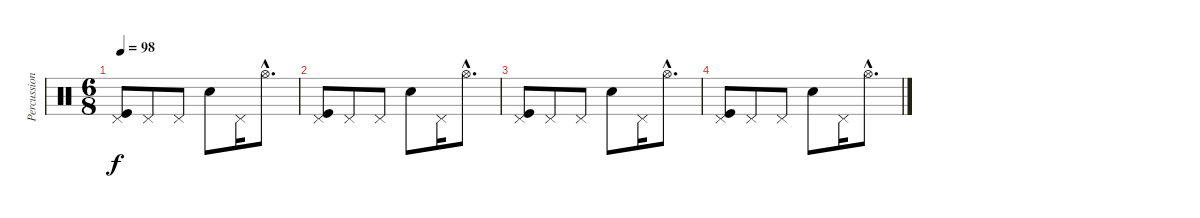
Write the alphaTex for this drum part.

\track ("Percussion" "Percussion") {instrument percussion}
\staff {score}
\articulation defaults
\ts (6 8)
\tempo 98
\clef neutral
\ks c
("Pedal Hi-Hat (hit)" "Kick (hit)").8{dy f} "Pedal Hi-Hat (hit)".8 "Pedal Hi-Hat (hit)".8 "Snare (hit) 2".8 "Pedal Hi-Hat (hit)".16 "Hi-Hat (open)"{hac}.8{d} |
("Pedal Hi-Hat (hit)" "Kick (hit)").8 "Pedal Hi-Hat (hit)".8 "Pedal Hi-Hat (hit)".8 "Snare (hit) 2".8 "Pedal Hi-Hat (hit)".16 "Hi-Hat (open)"{hac}.8{d} |
("Pedal Hi-Hat (hit)" "Kick (hit)").8 "Pedal Hi-Hat (hit)".8 "Pedal Hi-Hat (hit)".8 "Snare (hit) 2".8 "Pedal Hi-Hat (hit)".16 "Hi-Hat (open)"{hac}.8{d} |
("Pedal Hi-Hat (hit)" "Kick (hit)").8 "Pedal Hi-Hat (hit)".8 "Pedal Hi-Hat (hit)".8 "Snare (hit) 2".8 "Pedal Hi-Hat (hit)".16 "Hi-Hat (open)"{hac}.8{d}
